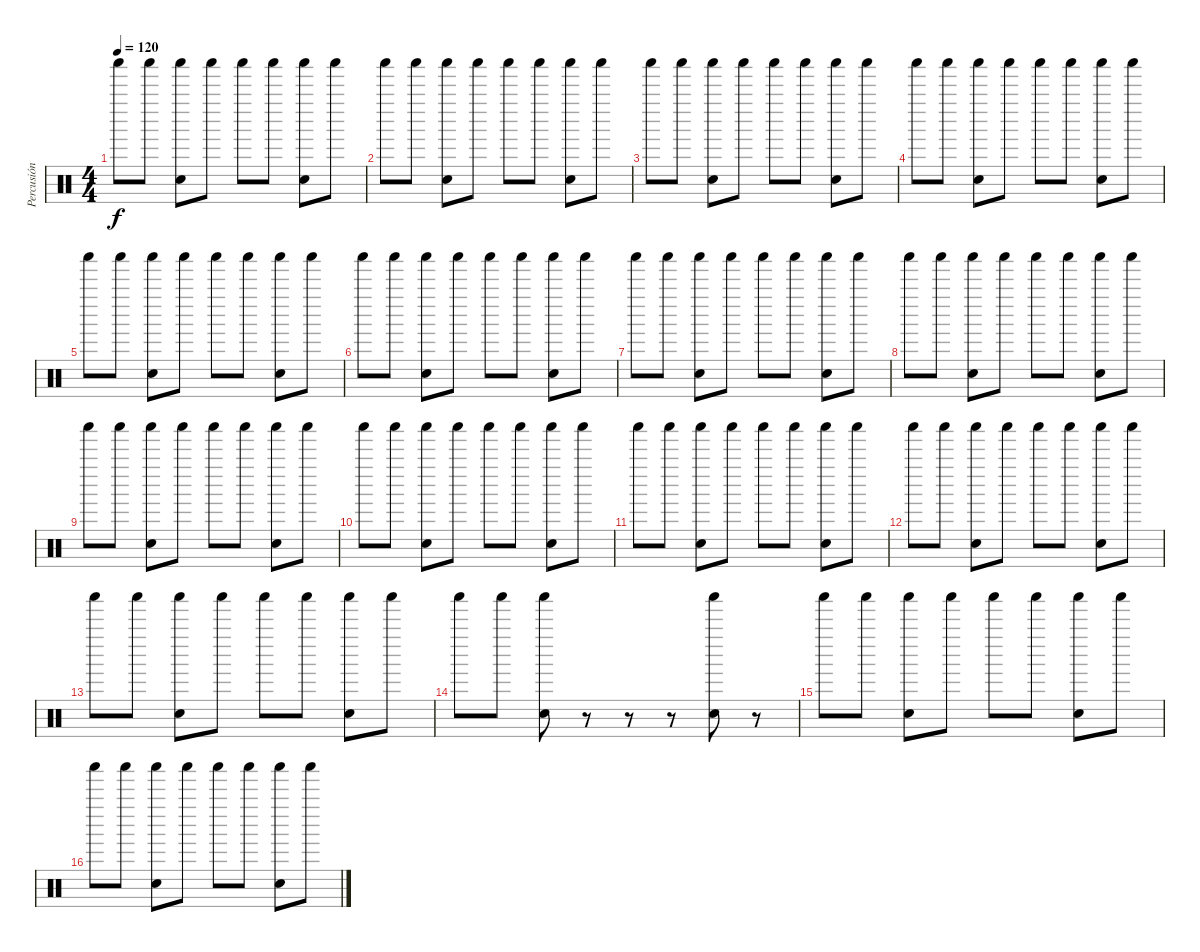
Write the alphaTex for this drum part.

\track ("Percusión" "Percusión") {instrument percussion}
\staff {score}
\articulation defaults
\ts (4 4)
\tempo 120
\clef neutral
\ks c "Shaker (hit)".8{dy f} "Shaker (hit)".8
("Shaker (hit)" "Hand Clap (hit)").8 "Shaker (hit)".8 "Shaker (hit)".8 "Shaker (hit)".8 ("Shaker (hit)" "Hand Clap (hit)").8 "Shaker (hit)".8 |
"Shaker (hit)".8 "Shaker (hit)".8 ("Shaker (hit)" "Hand Clap (hit)").8 "Shaker (hit)".8 "Shaker (hit)".8 "Shaker (hit)".8 ("Shaker (hit)" "Hand Clap (hit)").8 "Shaker (hit)".8 |
"Shaker (hit)".8 "Shaker (hit)".8 ("Shaker (hit)" "Hand Clap (hit)").8 "Shaker (hit)".8 "Shaker (hit)".8 "Shaker (hit)".8 ("Shaker (hit)" "Hand Clap (hit)").8 "Shaker (hit)".8 |
"Shaker (hit)".8 "Shaker (hit)".8 ("Shaker (hit)" "Hand Clap (hit)").8 "Shaker (hit)".8 "Shaker (hit)".8 "Shaker (hit)".8 ("Shaker (hit)" "Hand Clap (hit)").8 "Shaker (hit)".8 |
"Shaker (hit)".8 "Shaker (hit)".8 ("Shaker (hit)" "Hand Clap (hit)").8 "Shaker (hit)".8 "Shaker (hit)".8 "Shaker (hit)".8 ("Shaker (hit)" "Hand Clap (hit)").8 "Shaker (hit)".8 |
"Shaker (hit)".8 "Shaker (hit)".8 ("Shaker (hit)" "Hand Clap (hit)").8 "Shaker (hit)".8 "Shaker (hit)".8 "Shaker (hit)".8 ("Shaker (hit)" "Hand Clap (hit)").8 "Shaker (hit)".8 |
"Shaker (hit)".8 "Shaker (hit)".8 ("Shaker (hit)" "Hand Clap (hit)").8 "Shaker (hit)".8 "Shaker (hit)".8 "Shaker (hit)".8 ("Shaker (hit)" "Hand Clap (hit)").8 "Shaker (hit)".8 |
"Shaker (hit)".8 "Shaker (hit)".8 ("Shaker (hit)" "Hand Clap (hit)").8 "Shaker (hit)".8 "Shaker (hit)".8 "Shaker (hit)".8 ("Shaker (hit)" "Hand Clap (hit)").8 "Shaker (hit)".8 |
"Shaker (hit)".8 "Shaker (hit)".8 ("Shaker (hit)" "Hand Clap (hit)").8 "Shaker (hit)".8 "Shaker (hit)".8 "Shaker (hit)".8 ("Shaker (hit)" "Hand Clap (hit)").8 "Shaker (hit)".8 |
"Shaker (hit)".8 "Shaker (hit)".8 ("Shaker (hit)" "Hand Clap (hit)").8 "Shaker (hit)".8 "Shaker (hit)".8 "Shaker (hit)".8 ("Shaker (hit)" "Hand Clap (hit)").8 "Shaker (hit)".8 |
"Shaker (hit)".8 "Shaker (hit)".8 ("Shaker (hit)" "Hand Clap (hit)").8 "Shaker (hit)".8 "Shaker (hit)".8 "Shaker (hit)".8 ("Shaker (hit)" "Hand Clap (hit)").8 "Shaker (hit)".8 |
"Shaker (hit)".8 "Shaker (hit)".8 ("Shaker (hit)" "Hand Clap (hit)").8 "Shaker (hit)".8 "Shaker (hit)".8 "Shaker (hit)".8 ("Shaker (hit)" "Hand Clap (hit)").8 "Shaker (hit)".8 |
"Shaker (hit)".8 "Shaker (hit)".8 ("Shaker (hit)" "Hand Clap (hit)").8 "Shaker (hit)".8 "Shaker (hit)".8 "Shaker (hit)".8 ("Shaker (hit)" "Hand Clap (hit)").8 "Shaker (hit)".8 |
"Shaker (hit)".8 "Shaker (hit)".8 ("Shaker (hit)" "Hand Clap (hit)").8 r.8 r.8 r.8 ("Shaker (hit)" "Hand Clap (hit)").8 r.8 |
"Shaker (hit)".8 "Shaker (hit)".8 ("Shaker (hit)" "Hand Clap (hit)").8 "Shaker (hit)".8 "Shaker (hit)".8 "Shaker (hit)".8 ("Shaker (hit)" "Hand Clap (hit)").8 "Shaker (hit)".8 |
"Shaker (hit)".8 "Shaker (hit)".8 ("Shaker (hit)" "Hand Clap (hit)").8 "Shaker (hit)".8 "Shaker (hit)".8 "Shaker (hit)".8 ("Shaker (hit)" "Hand Clap (hit)").8 "Shaker (hit)".8
